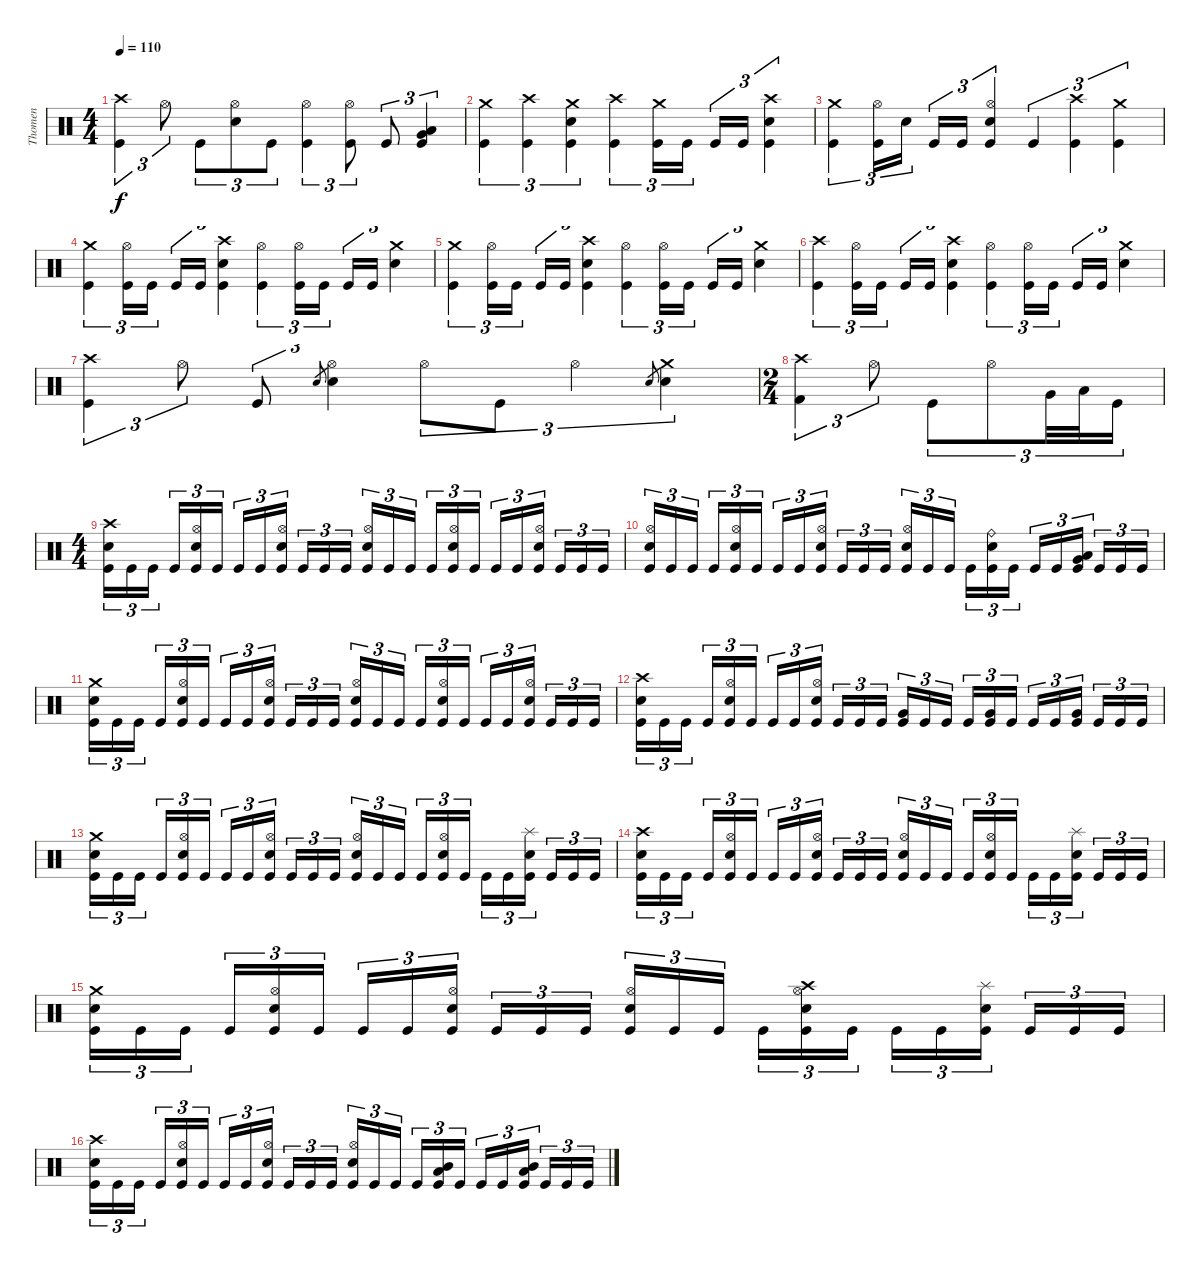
\track ("Thomen" "Thomen") {instrument percussion}
\staff {score}
\articulation defaults
\ts (4 4)
\tempo 110
\clef neutral
\ks c
("Crash high (hit)" "Kick (hit)").4{tu (3 2) dy f} "Hi-Hat (open)".8{tu (3 2)} "Kick (hit)".8{tu (3 2)} ("Hi-Hat (open)" "Snare (hit) 2").8{tu (3 2)} "Kick (hit)".8{tu (3 2)} ("Hi-Hat (open)" "Kick (hit)").4{tu (3 2)} ("Hi-Hat (open)" "Kick (hit)").8{tu (3 2)} "Kick (hit)".8{tu (3 2)} ("Low Tom (hit)" "Very Low Tom (hit)" "Kick (hit)").4{tu (3 2)} |
("Crash medium (hit)" "Kick (hit)").4{tu (3 2)} ("Crash high (hit)" "Kick (hit)").4{tu (3 2)} ("Crash medium (hit)" "Snare (hit) 2" "Kick (hit)").4{tu (3 2)} ("Crash high (hit)" "Kick (hit)").4{tu (3 2)} ("Crash medium (hit)" "Kick (hit)").16{tu (3 2)} "Kick (hit)".16{tu (3 2)} "Kick (hit)".16{tu (3 2)} "Kick (hit)".16{tu (3 2)} ("Crash high (hit)" "Snare (hit) 2" "Kick (hit)").4{tu (3 2)} |
("Crash medium (hit)" "Kick (hit)").4{tu (3 2)} ("Hi-Hat (open)" "Kick (hit)").16{tu (3 2)} "Snare (hit)".16{tu (3 2)} "Kick (hit)".16{tu (3 2)} "Kick (hit)".16{tu (3 2)} ("Hi-Hat (open)" "Snare (hit) 2" "Kick (hit)").4{tu (3 2)} "Kick (hit)".4{tu (3 2)} ("Crash high (hit)" "Kick (hit)").4{tu (3 2)} ("Crash medium (hit)" "Kick (hit)").4{tu (3 2)} |
("Crash medium (hit)" "Kick (hit)").4{tu (3 2)} ("Hi-Hat (open)" "Kick (hit)").16{tu (3 2)} "Kick (hit)".16{tu (3 2)} "Kick (hit)".16{tu (3 2)} "Kick (hit)".16{tu (3 2)} ("Crash high (hit)" "Snare (hit) 2" "Kick (hit)").4{tu (3 2)} ("Hi-Hat (open)" "Kick (hit)").4{tu (3 2)} ("Hi-Hat (open)" "Kick (hit)").16{tu (3 2)} "Kick (hit)".16{tu (3 2)} "Kick (hit)".16{tu (3 2)} "Kick (hit)".16{tu (3 2)} ("Crash medium (hit)" "Snare (hit) 2").4{tu (3 2)} |
("Crash medium (hit)" "Kick (hit)").4{tu (3 2)} ("Hi-Hat (open)" "Kick (hit)").16{tu (3 2)} "Kick (hit)".16{tu (3 2)} "Kick (hit)".16{tu (3 2)} "Kick (hit)".16{tu (3 2)} ("Crash high (hit)" "Snare (hit) 2" "Kick (hit)").4{tu (3 2)} ("Hi-Hat (open)" "Kick (hit)").4{tu (3 2)} ("Hi-Hat (open)" "Kick (hit)").16{tu (3 2)} "Kick (hit)".16{tu (3 2)} "Kick (hit)".16{tu (3 2)} "Kick (hit)".16{tu (3 2)} ("Crash medium (hit)" "Snare (hit) 2").4{tu (3 2)} |
("Crash high (hit)" "Kick (hit)").4{tu (3 2)} ("Hi-Hat (open)" "Kick (hit)").16{tu (3 2)} "Kick (hit)".16{tu (3 2)} "Kick (hit)".16{tu (3 2)} "Kick (hit)".16{tu (3 2)} ("Crash high (hit)" "Snare (hit) 2" "Kick (hit)").4{tu (3 2)} ("Hi-Hat (open)" "Kick (hit)").4{tu (3 2)} ("Hi-Hat (open)" "Kick (hit)").16{tu (3 2)} "Kick (hit)".16{tu (3 2)} "Kick (hit)".16{tu (3 2)} "Kick (hit)".16{tu (3 2)} ("Crash medium (hit)" "Snare (hit) 2").4{tu (3 2)} |
("Crash high (hit)" "Kick (hit)").4{tu (3 2)} "Hi-Hat (open)".8{tu (3 2)} "Kick (hit)".8{tu (3 2)} "Snare (hit) 2".8{gr} ("Hi-Hat (open)" "Snare (hit) 2").4{tu (3 2)} "Hi-Hat (open)".8{tu (3 2)} "Kick (hit)".8{tu (3 2)} "Hi-Hat (open)".4{tu (3 2)} "Snare (hit) 2".8{gr} ("Crash medium (hit)" "Snare (hit) 2").4{tu (3 2)} |
\ts (2 4)
("Crash high (hit)" "Kick (hit) 2").4{tu (3 2)} "Hi-Hat (open)".8{tu (3 2)} "Kick (hit)".8{tu (3 2)} "Hi-Hat (open)".8{tu (3 2)} "Very Low Tom (hit)".32{tu (3 2)} "Low Floor Tom (hit)".32{tu (3 2)} "Kick (hit)".16{tu (3 2)} |
\ts (4 4)
("Crash high (hit)" "Snare (hit) 2" "Kick (hit)").16{tu (3 2)} "Kick (hit)".16{tu (3 2)} "Kick (hit)".16{tu (3 2)} "Kick (hit)".16{tu (3 2)} ("Hi-Hat (open)" "Snare (hit) 2" "Kick (hit)").16{tu (3 2)} "Kick (hit)".16{tu (3 2)} "Kick (hit)".16{tu (3 2)} "Kick (hit)".16{tu (3 2)} ("Hi-Hat (open)" "Snare (hit) 2" "Kick (hit)").16{tu (3 2)} "Kick (hit)".16{tu (3 2)} "Kick (hit)".16{tu (3 2)} "Kick (hit)".16{tu (3 2)} ("Hi-Hat (open)" "Snare (hit) 2" "Kick (hit)").16{tu (3 2)} "Kick (hit)".16{tu (3 2)} "Kick (hit)".16{tu (3 2)} "Kick (hit)".16{tu (3 2)} ("Hi-Hat (open)" "Snare (hit) 2" "Kick (hit)").16{tu (3 2)} "Kick (hit)".16{tu (3 2)} "Kick (hit)".16{tu (3 2)} "Kick (hit)".16{tu (3 2)} ("Hi-Hat (open)" "Snare (hit) 2" "Kick (hit)").16{tu (3 2)} "Kick (hit)".16{tu (3 2)} "Kick (hit)".16{tu (3 2)} "Kick (hit)".16{tu (3 2)} |
("Hi-Hat (open)" "Snare (hit) 2" "Kick (hit)").16{tu (3 2)} "Kick (hit)".16{tu (3 2)} "Kick (hit)".16{tu (3 2)} "Kick (hit)".16{tu (3 2)} ("Hi-Hat (open)" "Snare (hit) 2" "Kick (hit)").16{tu (3 2)} "Kick (hit)".16{tu (3 2)} "Kick (hit)".16{tu (3 2)} "Kick (hit)".16{tu (3 2)} ("Hi-Hat (open)" "Snare (hit) 2" "Kick (hit)").16{tu (3 2)} "Kick (hit)".16{tu (3 2)} "Kick (hit)".16{tu (3 2)} "Kick (hit)".16{tu (3 2)} ("Hi-Hat (open)" "Snare (hit) 2" "Kick (hit)").16{tu (3 2)} "Kick (hit)".16{tu (3 2)} "Kick (hit)".16{tu (3 2)} "Kick (hit)".16{tu (3 2)} ("Ride (bell)" "Snare (hit) 2" "Kick (hit)").16{tu (3 2)} "Kick (hit)".16{tu (3 2)} "Kick (hit)".16{tu (3 2)} "Kick (hit)".16{tu (3 2)} ("Low Tom (hit)" "Very Low Tom (hit)" "Kick (hit)").16{tu (3 2)} "Kick (hit)".16{tu (3 2)} "Kick (hit)".16{tu (3 2)} "Kick (hit)".16{tu (3 2)} |
("Crash medium (hit)" "Snare (hit) 2" "Kick (hit)").16{tu (3 2)} "Kick (hit)".16{tu (3 2)} "Kick (hit)".16{tu (3 2)} "Kick (hit)".16{tu (3 2)} ("Hi-Hat (open)" "Snare (hit) 2" "Kick (hit)").16{tu (3 2)} "Kick (hit)".16{tu (3 2)} "Kick (hit)".16{tu (3 2)} "Kick (hit)".16{tu (3 2)} ("Hi-Hat (open)" "Snare (hit) 2" "Kick (hit)").16{tu (3 2)} "Kick (hit)".16{tu (3 2)} "Kick (hit)".16{tu (3 2)} "Kick (hit)".16{tu (3 2)} ("Hi-Hat (open)" "Snare (hit) 2" "Kick (hit)").16{tu (3 2)} "Kick (hit)".16{tu (3 2)} "Kick (hit)".16{tu (3 2)} "Kick (hit)".16{tu (3 2)} ("Hi-Hat (open)" "Snare (hit) 2" "Kick (hit)").16{tu (3 2)} "Kick (hit)".16{tu (3 2)} "Kick (hit)".16{tu (3 2)} "Kick (hit)".16{tu (3 2)} ("Hi-Hat (open)" "Snare (hit) 2" "Kick (hit)").16{tu (3 2)} "Kick (hit)".16{tu (3 2)} "Kick (hit)".16{tu (3 2)} "Kick (hit)".16{tu (3 2)} |
("Crash high (hit)" "Snare (hit) 2" "Kick (hit)").16{tu (3 2)} "Kick (hit)".16{tu (3 2)} "Kick (hit)".16{tu (3 2)} "Kick (hit)".16{tu (3 2)} ("Hi-Hat (open)" "Snare (hit) 2" "Kick (hit)").16{tu (3 2)} "Kick (hit)".16{tu (3 2)} "Kick (hit)".16{tu (3 2)} "Kick (hit)".16{tu (3 2)} ("Hi-Hat (open)" "Snare (hit) 2" "Kick (hit)").16{tu (3 2)} "Kick (hit)".16{tu (3 2)} "Kick (hit)".16{tu (3 2)} "Kick (hit)".16{tu (3 2)} ("Very Low Tom (hit)" "Kick (hit)").16{tu (3 2)} "Kick (hit)".16{tu (3 2)} "Kick (hit)".16{tu (3 2)} "Kick (hit)".16{tu (3 2)} ("Very Low Tom (hit)" "Kick (hit)").16{tu (3 2)} "Kick (hit)".16{tu (3 2)} "Kick (hit)".16{tu (3 2)} "Kick (hit)".16{tu (3 2)} ("Very Low Tom (hit)" "Kick (hit)").16{tu (3 2)} "Kick (hit)".16{tu (3 2)} "Kick (hit)".16{tu (3 2)} "Kick (hit)".16{tu (3 2)} |
("Crash medium (hit)" "Snare (hit) 2" "Kick (hit)").16{tu (3 2)} "Kick (hit)".16{tu (3 2)} "Kick (hit)".16{tu (3 2)} "Kick (hit)".16{tu (3 2)} ("Hi-Hat (open)" "Snare (hit) 2" "Kick (hit)").16{tu (3 2)} "Kick (hit)".16{tu (3 2)} "Kick (hit)".16{tu (3 2)} "Kick (hit)".16{tu (3 2)} ("Hi-Hat (open)" "Snare (hit) 2" "Kick (hit)").16{tu (3 2)} "Kick (hit)".16{tu (3 2)} "Kick (hit)".16{tu (3 2)} "Kick (hit)".16{tu (3 2)} ("Hi-Hat (open)" "Snare (hit) 2" "Kick (hit)").16{tu (3 2)} "Kick (hit)".16{tu (3 2)} "Kick (hit)".16{tu (3 2)} "Kick (hit)".16{tu (3 2)} ("Hi-Hat (open)" "Snare (hit) 2" "Kick (hit)").16{tu (3 2)} "Kick (hit)".16{tu (3 2)} "Kick (hit)".16{tu (3 2)} "Kick (hit)".16{tu (3 2)} ("Splash (hit)" "Snare (hit) 2" "Kick (hit)").16{tu (3 2)} "Kick (hit)".16{tu (3 2)} "Kick (hit)".16{tu (3 2)} "Kick (hit)".16{tu (3 2)} |
("Crash high (hit)" "Snare (hit) 2" "Kick (hit)").16{tu (3 2)} "Kick (hit)".16{tu (3 2)} "Kick (hit)".16{tu (3 2)} "Kick (hit)".16{tu (3 2)} ("Hi-Hat (open)" "Snare (hit) 2" "Kick (hit)").16{tu (3 2)} "Kick (hit)".16{tu (3 2)} "Kick (hit)".16{tu (3 2)} "Kick (hit)".16{tu (3 2)} ("Hi-Hat (open)" "Snare (hit) 2" "Kick (hit)").16{tu (3 2)} "Kick (hit)".16{tu (3 2)} "Kick (hit)".16{tu (3 2)} "Kick (hit)".16{tu (3 2)} ("Hi-Hat (open)" "Snare (hit) 2" "Kick (hit)").16{tu (3 2)} "Kick (hit)".16{tu (3 2)} "Kick (hit)".16{tu (3 2)} "Kick (hit)".16{tu (3 2)} ("Hi-Hat (open)" "Snare (hit) 2" "Kick (hit)").16{tu (3 2)} "Kick (hit)".16{tu (3 2)} "Kick (hit)".16{tu (3 2)} "Kick (hit)".16{tu (3 2)} ("Splash (hit)" "Snare (hit) 2" "Kick (hit)").16{tu (3 2)} "Kick (hit)".16{tu (3 2)} "Kick (hit)".16{tu (3 2)} "Kick (hit)".16{tu (3 2)} |
("Crash medium (hit)" "Snare (hit) 2" "Kick (hit)").16{tu (3 2)} "Kick (hit)".16{tu (3 2)} "Kick (hit)".16{tu (3 2)} "Kick (hit)".16{tu (3 2)} ("Hi-Hat (open)" "Snare (hit) 2" "Kick (hit)").16{tu (3 2)} "Kick (hit)".16{tu (3 2)} "Kick (hit)".16{tu (3 2)} "Kick (hit)".16{tu (3 2)} ("Hi-Hat (open)" "Snare (hit) 2" "Kick (hit)").16{tu (3 2)} "Kick (hit)".16{tu (3 2)} "Kick (hit)".16{tu (3 2)} "Kick (hit)".16{tu (3 2)} ("Hi-Hat (open)" "Snare (hit) 2" "Kick (hit)").16{tu (3 2)} "Kick (hit)".16{tu (3 2)} "Kick (hit)".16{tu (3 2)} "Kick (hit)".16{tu (3 2)} ("Crash high (hit)" "Hi-Hat (open)" "Snare (hit) 2" "Kick (hit)").16{tu (3 2)} "Kick (hit)".16{tu (3 2)} "Kick (hit)".16{tu (3 2)} "Kick (hit)".16{tu (3 2)} ("Splash (hit)" "Snare (hit) 2" "Kick (hit)").16{tu (3 2)} "Kick (hit)".16{tu (3 2)} "Kick (hit)".16{tu (3 2)} "Kick (hit)".16{tu (3 2)} |
("Crash high (hit)" "Snare (hit) 2" "Kick (hit)").16{tu (3 2)} "Kick (hit)".16{tu (3 2)} "Kick (hit)".16{tu (3 2)} "Kick (hit)".16{tu (3 2)} ("Hi-Hat (open)" "Snare (hit) 2" "Kick (hit)").16{tu (3 2)} "Kick (hit)".16{tu (3 2)} "Kick (hit)".16{tu (3 2)} "Kick (hit)".16{tu (3 2)} ("Hi-Hat (open)" "Snare (hit) 2" "Kick (hit)").16{tu (3 2)} "Kick (hit)".16{tu (3 2)} "Kick (hit)".16{tu (3 2)} "Kick (hit)".16{tu (3 2)} ("Hi-Hat (open)" "Snare (hit) 2" "Kick (hit)").16{tu (3 2)} "Kick (hit)".16{tu (3 2)} "Kick (hit)".16{tu (3 2)} "Kick (hit)".16{tu (3 2)} ("Mid Tom (hit)" "Low Tom (hit)" "Kick (hit)").16{tu (3 2)} "Kick (hit)".16{tu (3 2)} "Kick (hit)".16{tu (3 2)} "Kick (hit)".16{tu (3 2)} ("Mid Tom (hit)" "Low Tom (hit)" "Kick (hit)").16{tu (3 2)} "Kick (hit)".16{tu (3 2)} "Kick (hit)".16{tu (3 2)} "Kick (hit)".16{tu (3 2)}
